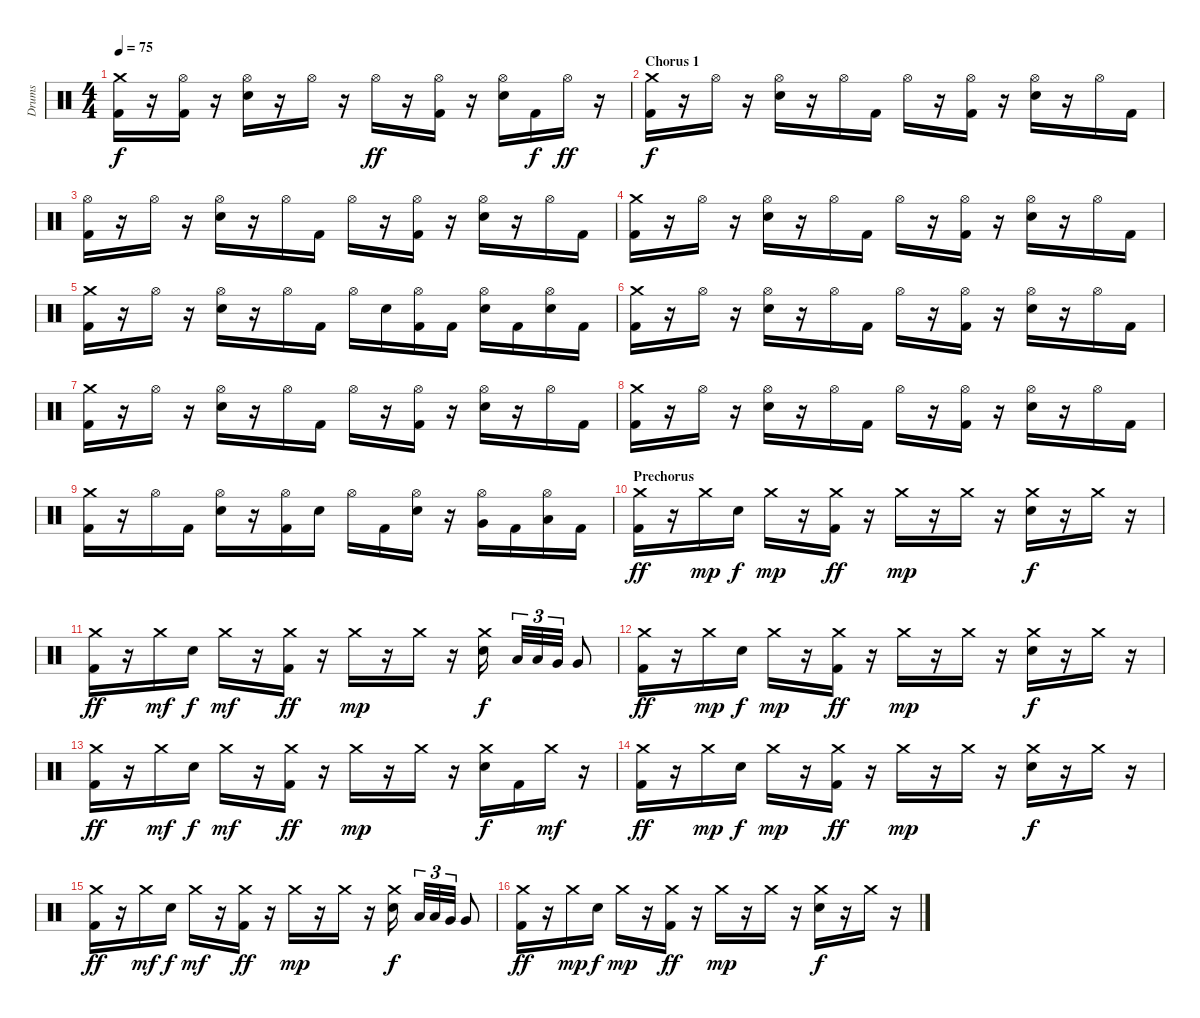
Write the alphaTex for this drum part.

\track ("Drums" "Drums") {instrument percussion}
\staff {score}
\articulation defaults
\ts (4 4)
\tempo 75
\clef neutral
\ks c
("Crash medium (hit)" "Kick (hit) 2").16{dy f} r.16 ("Hi-Hat (open)" "Kick (hit) 2").16 r.16 ("Hi-Hat (open)" "Snare (hit) 2").16 r.16 "Hi-Hat (open)".16 r.16 "Hi-Hat (open)".16{dy ff} r.16 ("Hi-Hat (open)" "Kick (hit) 2").16 r.16 ("Hi-Hat (open)" "Snare (hit) 2").16 "Kick (hit) 2".16{dy f} "Hi-Hat (open)".16{dy ff} r.16 |
\section ("" "Chorus 1")
("Crash medium (hit)" "Kick (hit) 2").16{dy f volume 16} r.16 "Hi-Hat (open)".16 r.16 ("Hi-Hat (open)" "Snare (hit) 2").16 r.16 "Hi-Hat (open)".16 "Kick (hit) 2".16 "Hi-Hat (open)".16 r.16 ("Hi-Hat (open)" "Kick (hit) 2").16 r.16 ("Hi-Hat (open)" "Snare (hit) 2").16 r.16 "Hi-Hat (open)".16 "Kick (hit) 2".16 |
("Hi-Hat (open)" "Kick (hit) 2").16 r.16 "Hi-Hat (open)".16 r.16 ("Hi-Hat (open)" "Snare (hit) 2").16 r.16 "Hi-Hat (open)".16 "Kick (hit) 2".16 "Hi-Hat (open)".16 r.16 ("Hi-Hat (open)" "Kick (hit) 2").16 r.16 ("Hi-Hat (open)" "Snare (hit) 2").16 r.16 "Hi-Hat (open)".16 "Kick (hit) 2".16 |
("Crash medium (hit)" "Kick (hit) 2").16 r.16 "Hi-Hat (open)".16 r.16 ("Hi-Hat (open)" "Snare (hit) 2").16 r.16 "Hi-Hat (open)".16 "Kick (hit) 2".16 "Hi-Hat (open)".16 r.16 ("Hi-Hat (open)" "Kick (hit) 2").16 r.16 ("Hi-Hat (open)" "Snare (hit) 2").16 r.16 "Hi-Hat (open)".16 "Kick (hit) 2".16 |
("Crash medium (hit)" "Kick (hit) 2").16 r.16 "Hi-Hat (open)".16 r.16 ("Hi-Hat (open)" "Snare (hit) 2").16 r.16 "Hi-Hat (open)".16 "Kick (hit) 2".16 "Hi-Hat (open)".16 "Snare (hit) 2".16 ("Hi-Hat (open)" "Kick (hit) 2").16 "Kick (hit) 2".16 ("Hi-Hat (open)" "Snare (hit) 2").16 "Kick (hit) 2".16 ("Hi-Hat (open)" "Snare (hit) 2").16 "Kick (hit) 2".16 |
("Crash medium (hit)" "Kick (hit) 2").16 r.16 "Hi-Hat (open)".16 r.16 ("Hi-Hat (open)" "Snare (hit) 2").16 r.16 "Hi-Hat (open)".16 "Kick (hit) 2".16 "Hi-Hat (open)".16 r.16 ("Hi-Hat (open)" "Kick (hit) 2").16 r.16 ("Hi-Hat (open)" "Snare (hit) 2").16 r.16 "Hi-Hat (open)".16 "Kick (hit) 2".16 |
("Crash medium (hit)" "Kick (hit) 2").16 r.16 "Hi-Hat (open)".16 r.16 ("Hi-Hat (open)" "Snare (hit) 2").16 r.16 "Hi-Hat (open)".16 "Kick (hit) 2".16 "Hi-Hat (open)".16 r.16 ("Hi-Hat (open)" "Kick (hit) 2").16 r.16 ("Hi-Hat (open)" "Snare (hit) 2").16 r.16 "Hi-Hat (open)".16 "Kick (hit) 2".16 |
("Crash medium (hit)" "Kick (hit) 2").16 r.16 "Hi-Hat (open)".16 r.16 ("Hi-Hat (open)" "Snare (hit) 2").16 r.16 "Hi-Hat (open)".16 "Kick (hit) 2".16 "Hi-Hat (open)".16 r.16 ("Hi-Hat (open)" "Kick (hit) 2").16 r.16 ("Hi-Hat (open)" "Snare (hit) 2").16 r.16 "Hi-Hat (open)".16 "Kick (hit) 2".16 |
("Crash medium (hit)" "Kick (hit) 2").16 r.16 "Hi-Hat (open)".16 "Kick (hit) 2".16 ("Hi-Hat (open)" "Snare (hit) 2").16 r.16 ("Hi-Hat (open)" "Kick (hit) 2").16 "Snare (hit) 2".16 "Hi-Hat (open)".16 "Kick (hit) 2".16 ("Hi-Hat (open)" "Snare (hit) 2").16 r.16 ("Hi-Hat (open)" "Very Low Tom (hit)").16 "Kick (hit) 2".16 ("Hi-Hat (open)" "Low Floor Tom (hit)").16 "Kick (hit) 2".16 |
\section ("" "Prechorus")
("Crash medium (hit)" "Kick (hit) 2").16{dy ff} r.16 "Crash medium (hit)".16{dy mp} "Snare (hit) 2".16{dy f} "Crash medium (hit)".16{dy mp} r.16 ("Crash medium (hit)" "Kick (hit) 2").16{dy ff} r.16 "Crash medium (hit)".16{dy mp} r.16 "Crash medium (hit)".16 r.16 ("Crash medium (hit)" "Snare (hit) 2").16{dy f} r.16 "Crash medium (hit)".16 r.16 |
("Crash medium (hit)" "Kick (hit) 2").16{dy ff} r.16 "Crash medium (hit)".16{dy mf} "Snare (hit) 2".16{dy f} "Crash medium (hit)".16{dy mf} r.16 ("Crash medium (hit)" "Kick (hit) 2").16{dy ff} r.16 "Crash medium (hit)".16{dy mp} r.16 "Crash medium (hit)".16 r.16 ("Crash medium (hit)" "Snare (hit) 2").16{dy f} "Low Tom (hit)".32{tu (3 2)} "Low Tom (hit)".32{tu (3 2)} "Very Low Tom (hit)".32{tu (3 2)} "Very Low Tom (hit)".8 |
("Crash medium (hit)" "Kick (hit) 2").16{dy ff} r.16 "Crash medium (hit)".16{dy mp} "Snare (hit) 2".16{dy f} "Crash medium (hit)".16{dy mp} r.16 ("Crash medium (hit)" "Kick (hit) 2").16{dy ff} r.16 "Crash medium (hit)".16{dy mp} r.16 "Crash medium (hit)".16 r.16 ("Crash medium (hit)" "Snare (hit) 2").16{dy f} r.16 "Crash medium (hit)".16 r.16 |
("Crash medium (hit)" "Kick (hit) 2").16{dy ff} r.16 "Crash medium (hit)".16{dy mf} "Snare (hit) 2".16{dy f} "Crash medium (hit)".16{dy mf} r.16 ("Crash medium (hit)" "Kick (hit) 2").16{dy ff} r.16 "Crash medium (hit)".16{dy mp} r.16 "Crash medium (hit)".16 r.16 ("Crash medium (hit)" "Snare (hit) 2").16{dy f} "Kick (hit) 2".16 "Crash medium (hit)".16{dy mf} r.16 |
("Crash medium (hit)" "Kick (hit) 2").16{dy ff} r.16 "Crash medium (hit)".16{dy mp} "Snare (hit) 2".16{dy f} "Crash medium (hit)".16{dy mp} r.16 ("Crash medium (hit)" "Kick (hit) 2").16{dy ff} r.16 "Crash medium (hit)".16{dy mp} r.16 "Crash medium (hit)".16 r.16 ("Crash medium (hit)" "Snare (hit) 2").16{dy f} r.16 "Crash medium (hit)".16 r.16 |
("Crash medium (hit)" "Kick (hit) 2").16{dy ff} r.16 "Crash medium (hit)".16{dy mf} "Snare (hit) 2".16{dy f} "Crash medium (hit)".16{dy mf} r.16 ("Crash medium (hit)" "Kick (hit) 2").16{dy ff} r.16 "Crash medium (hit)".16{dy mp} r.16 "Crash medium (hit)".16 r.16 ("Crash medium (hit)" "Snare (hit) 2").16{dy f} "Low Tom (hit)".32{tu (3 2)} "Low Tom (hit)".32{tu (3 2)} "Very Low Tom (hit)".32{tu (3 2)} "Very Low Tom (hit)".8 |
("Crash medium (hit)" "Kick (hit) 2").16{dy ff} r.16 "Crash medium (hit)".16{dy mp} "Snare (hit) 2".16{dy f} "Crash medium (hit)".16{dy mp} r.16 ("Crash medium (hit)" "Kick (hit) 2").16{dy ff} r.16 "Crash medium (hit)".16{dy mp} r.16 "Crash medium (hit)".16 r.16 ("Crash medium (hit)" "Snare (hit) 2").16{dy f} r.16 "Crash medium (hit)".16 r.16
